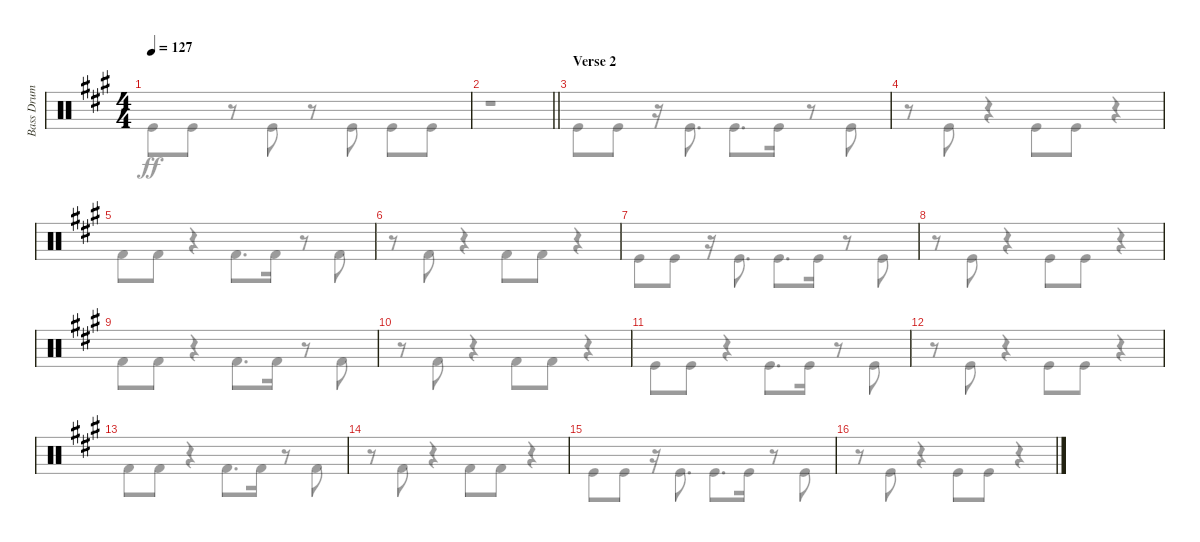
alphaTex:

\track ("Bass Drum" "Bass Drum") {instrument percussion}
\staff {score}
\articulation defaults
\voice
\ts (4 4)
\tempo 127
\clef neutral
\ks a
|
\barLineRight lightlight
|
\section ("" "Verse 2")
|
|
|
|
|
|
|
|
|
|
|
|
|
\voice
\clef neutral
\ks a "Kick (hit)".8{dy ff} "Kick (hit)".8
r.8 "Kick (hit)".8 r.8 "Kick (hit)".8 "Kick (hit)".8 "Kick (hit)".8 |
\barLineRight lightlight
r.1 |
"Kick (hit)".8 "Kick (hit)".8 r.16 "Kick (hit)".8{d} "Kick (hit)".8{d} "Kick (hit)".16 r.8 "Kick (hit)".8 |
r.8 "Kick (hit)".8 r.4 "Kick (hit)".8 "Kick (hit)".8 r.4 |
"Kick (hit) 2".8 "Kick (hit) 2".8 r.4 "Kick (hit) 2".8{d} "Kick (hit) 2".16 r.8 "Kick (hit) 2".8 |
r.8 "Kick (hit) 2".8 r.4 "Kick (hit) 2".8 "Kick (hit) 2".8 r.4 |
"Kick (hit)".8 "Kick (hit)".8 r.16 "Kick (hit)".8{d} "Kick (hit)".8{d} "Kick (hit)".16 r.8 "Kick (hit)".8 |
r.8 "Kick (hit)".8 r.4 "Kick (hit)".8 "Kick (hit)".8 r.4 |
"Kick (hit) 2".8 "Kick (hit) 2".8 r.4 "Kick (hit) 2".8{d} "Kick (hit) 2".16 r.8 "Kick (hit) 2".8 |
r.8 "Kick (hit) 2".8 r.4 "Kick (hit) 2".8 "Kick (hit) 2".8 r.4 |
"Kick (hit)".8 "Kick (hit)".8 r.4 "Kick (hit)".8{d} "Kick (hit)".16 r.8 "Kick (hit)".8 |
r.8 "Kick (hit)".8 r.4 "Kick (hit)".8 "Kick (hit)".8 r.4 |
"Kick (hit) 2".8 "Kick (hit) 2".8 r.4 "Kick (hit) 2".8{d} "Kick (hit) 2".16 r.8 "Kick (hit) 2".8 |
r.8 "Kick (hit) 2".8 r.4 "Kick (hit) 2".8 "Kick (hit) 2".8 r.4 |
"Kick (hit)".8 "Kick (hit)".8 r.16 "Kick (hit)".8{d} "Kick (hit)".8{d} "Kick (hit)".16 r.8 "Kick (hit)".8 |
r.8 "Kick (hit)".8 r.4 "Kick (hit)".8 "Kick (hit)".8 r.4
